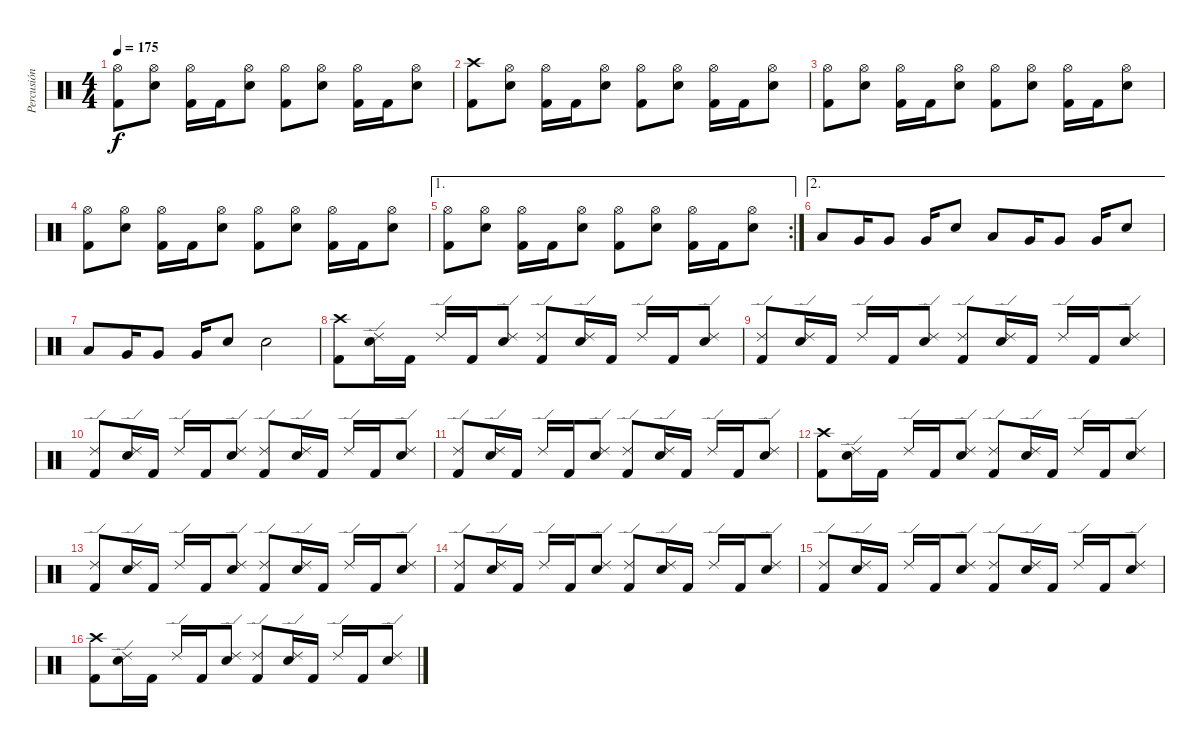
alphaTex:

\track ("Percusión" "Percusión") {instrument percussion}
\staff {score}
\articulation defaults
\ts (4 4)
\tempo 175
\clef neutral
\ks c
("Hi-Hat (open)" "Kick (hit) 2").8{dy f} ("Hi-Hat (open)" "Electric Snare (hit)").8 ("Hi-Hat (open)" "Kick (hit) 2").16 "Kick (hit) 2".16 ("Hi-Hat (open)" "Electric Snare (hit)").8 ("Hi-Hat (open)" "Kick (hit) 2").8 ("Hi-Hat (open)" "Electric Snare (hit)").8 ("Hi-Hat (open)" "Kick (hit) 2").16 "Kick (hit) 2".16 ("Hi-Hat (open)" "Electric Snare (hit)").8 |
("Crash high (hit)" "Kick (hit) 2").8 ("Hi-Hat (open)" "Electric Snare (hit)").8 ("Hi-Hat (open)" "Kick (hit) 2").16 "Kick (hit) 2".16 ("Hi-Hat (open)" "Electric Snare (hit)").8 ("Hi-Hat (open)" "Kick (hit) 2").8 ("Hi-Hat (open)" "Electric Snare (hit)").8 ("Hi-Hat (open)" "Kick (hit) 2").16 "Kick (hit) 2".16 ("Hi-Hat (open)" "Electric Snare (hit)").8 |
("Hi-Hat (open)" "Kick (hit) 2").8 ("Hi-Hat (open)" "Electric Snare (hit)").8 ("Hi-Hat (open)" "Kick (hit) 2").16 "Kick (hit) 2".16 ("Hi-Hat (open)" "Electric Snare (hit)").8 ("Hi-Hat (open)" "Kick (hit) 2").8 ("Hi-Hat (open)" "Electric Snare (hit)").8 ("Hi-Hat (open)" "Kick (hit) 2").16 "Kick (hit) 2".16 ("Hi-Hat (open)" "Electric Snare (hit)").8 |
("Hi-Hat (open)" "Kick (hit) 2").8 ("Hi-Hat (open)" "Electric Snare (hit)").8 ("Hi-Hat (open)" "Kick (hit) 2").16 "Kick (hit) 2".16 ("Hi-Hat (open)" "Electric Snare (hit)").8 ("Hi-Hat (open)" "Kick (hit) 2").8 ("Hi-Hat (open)" "Electric Snare (hit)").8 ("Hi-Hat (open)" "Kick (hit) 2").16 "Kick (hit) 2".16 ("Hi-Hat (open)" "Electric Snare (hit)").8 |
\ae 1
\rc 2
("Hi-Hat (open)" "Kick (hit) 2").8 ("Hi-Hat (open)" "Electric Snare (hit)").8 ("Hi-Hat (open)" "Kick (hit) 2").16 "Kick (hit) 2".16 ("Hi-Hat (open)" "Electric Snare (hit)").8 ("Hi-Hat (open)" "Kick (hit) 2").8 ("Hi-Hat (open)" "Electric Snare (hit)").8 ("Hi-Hat (open)" "Kick (hit) 2").16 "Kick (hit) 2".16 ("Hi-Hat (open)" "Electric Snare (hit)").8 |
\ae 2 "Low Tom (hit)".8 "Very Low Tom (hit)".16 "Very Low Tom (hit)".8 "Very Low Tom (hit)".16 "Electric Snare (hit)".8 "Low Tom (hit)".8 "Very Low Tom (hit)".16 "Very Low Tom (hit)".8 "Very Low Tom (hit)".16 "Electric Snare (hit)".8
|
"Low Tom (hit)".8 "Very Low Tom (hit)".16 "Very Low Tom (hit)".8 "Very Low Tom (hit)".16 "Electric Snare (hit)".8 "Electric Snare (hit)".2 |
("Crash high (hit)" "Kick (hit) 2").8 ("Ride (edge) 2" "Electric Snare (hit)").16 "Kick (hit) 2".16 "Ride (edge) 2".16 "Kick (hit) 2".16 ("Ride (edge) 2" "Electric Snare (hit)").8 ("Ride (edge) 2" "Kick (hit) 2").8 ("Ride (edge) 2" "Electric Snare (hit)").16 "Kick (hit) 2".16 "Ride (edge) 2".16 "Kick (hit) 2".16 ("Ride (edge) 2" "Electric Snare (hit)").8 |
("Ride (edge) 2" "Kick (hit) 2").8 ("Ride (edge) 2" "Electric Snare (hit)").16 "Kick (hit) 2".16 "Ride (edge) 2".16 "Kick (hit) 2".16 ("Ride (edge) 2" "Electric Snare (hit)").8 ("Ride (edge) 2" "Kick (hit) 2").8 ("Ride (edge) 2" "Electric Snare (hit)").16 "Kick (hit) 2".16 "Ride (edge) 2".16 "Kick (hit) 2".16 ("Ride (edge) 2" "Electric Snare (hit)").8 |
("Ride (edge) 2" "Kick (hit) 2").8 ("Ride (edge) 2" "Electric Snare (hit)").16 "Kick (hit) 2".16 "Ride (edge) 2".16 "Kick (hit) 2".16 ("Ride (edge) 2" "Electric Snare (hit)").8 ("Ride (edge) 2" "Kick (hit) 2").8 ("Ride (edge) 2" "Electric Snare (hit)").16 "Kick (hit) 2".16 "Ride (edge) 2".16 "Kick (hit) 2".16 ("Ride (edge) 2" "Electric Snare (hit)").8 |
("Ride (edge) 2" "Kick (hit) 2").8 ("Ride (edge) 2" "Electric Snare (hit)").16 "Kick (hit) 2".16 "Ride (edge) 2".16 "Kick (hit) 2".16 ("Ride (edge) 2" "Electric Snare (hit)").8 ("Ride (edge) 2" "Kick (hit) 2").8 ("Ride (edge) 2" "Electric Snare (hit)").16 "Kick (hit) 2".16 "Ride (edge) 2".16 "Kick (hit) 2".16 ("Ride (edge) 2" "Electric Snare (hit)").8 |
("Crash high (hit)" "Kick (hit) 2").8 ("Ride (edge) 2" "Electric Snare (hit)").16 "Kick (hit) 2".16 "Ride (edge) 2".16 "Kick (hit) 2".16 ("Ride (edge) 2" "Electric Snare (hit)").8 ("Ride (edge) 2" "Kick (hit) 2").8 ("Ride (edge) 2" "Electric Snare (hit)").16 "Kick (hit) 2".16 "Ride (edge) 2".16 "Kick (hit) 2".16 ("Ride (edge) 2" "Electric Snare (hit)").8 |
("Ride (edge) 2" "Kick (hit) 2").8 ("Ride (edge) 2" "Electric Snare (hit)").16 "Kick (hit) 2".16 "Ride (edge) 2".16 "Kick (hit) 2".16 ("Ride (edge) 2" "Electric Snare (hit)").8 ("Ride (edge) 2" "Kick (hit) 2").8 ("Ride (edge) 2" "Electric Snare (hit)").16 "Kick (hit) 2".16 "Ride (edge) 2".16 "Kick (hit) 2".16 ("Ride (edge) 2" "Electric Snare (hit)").8 |
("Ride (edge) 2" "Kick (hit) 2").8 ("Ride (edge) 2" "Electric Snare (hit)").16 "Kick (hit) 2".16 "Ride (edge) 2".16 "Kick (hit) 2".16 ("Ride (edge) 2" "Electric Snare (hit)").8 ("Ride (edge) 2" "Kick (hit) 2").8 ("Ride (edge) 2" "Electric Snare (hit)").16 "Kick (hit) 2".16 "Ride (edge) 2".16 "Kick (hit) 2".16 ("Ride (edge) 2" "Electric Snare (hit)").8 |
("Ride (edge) 2" "Kick (hit) 2").8 ("Ride (edge) 2" "Electric Snare (hit)").16 "Kick (hit) 2".16 "Ride (edge) 2".16 "Kick (hit) 2".16 ("Ride (edge) 2" "Electric Snare (hit)").8 ("Ride (edge) 2" "Kick (hit) 2").8 ("Ride (edge) 2" "Electric Snare (hit)").16 "Kick (hit) 2".16 "Ride (edge) 2".16 "Kick (hit) 2".16 ("Ride (edge) 2" "Electric Snare (hit)").8 |
("Crash high (hit)" "Kick (hit) 2").8 ("Ride (edge) 2" "Electric Snare (hit)").16 "Kick (hit) 2".16 "Ride (edge) 2".16 "Kick (hit) 2".16 ("Ride (edge) 2" "Electric Snare (hit)").8 ("Ride (edge) 2" "Kick (hit) 2").8 ("Ride (edge) 2" "Electric Snare (hit)").16 "Kick (hit) 2".16 "Ride (edge) 2".16 "Kick (hit) 2".16 ("Ride (edge) 2" "Electric Snare (hit)").8
